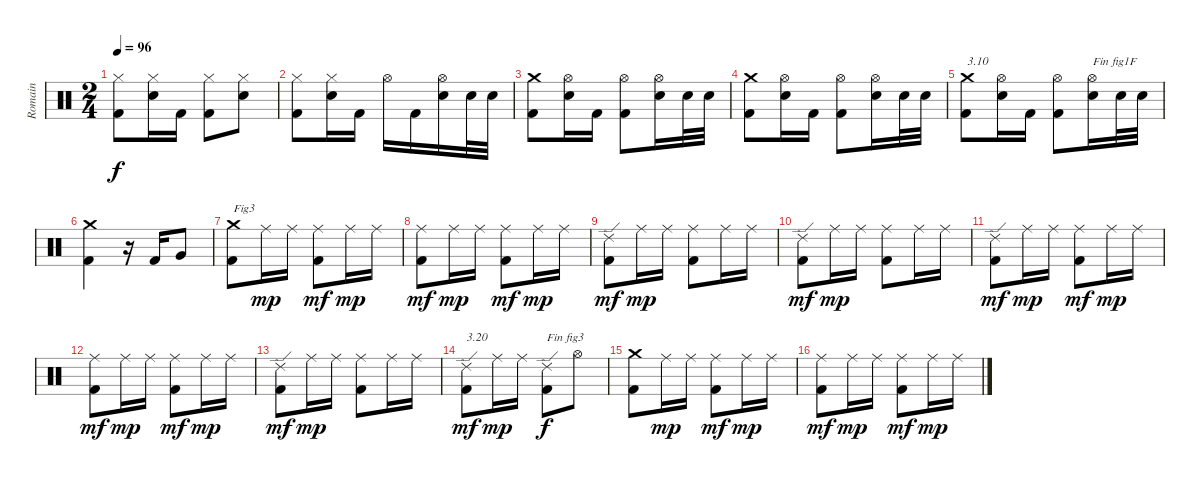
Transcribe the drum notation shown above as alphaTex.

\track ("Romain" "Romain") {instrument percussion}
\staff {score}
\articulation defaults
\ts (2 4)
\tempo 96
\clef neutral
\ks c
("Kick (hit) 2" "Hi-Hat (closed)").8{dy f} ("Electric Snare (hit)" "Hi-Hat (closed)").16 "Kick (hit) 2".16 ("Kick (hit) 2" "Hi-Hat (closed)").8 ("Electric Snare (hit)" "Hi-Hat (closed)").8 |
("Kick (hit) 2" "Hi-Hat (closed)").8 ("Electric Snare (hit)" "Hi-Hat (closed)").16 "Kick (hit) 2".16 "Hi-Hat (open)".16 "Kick (hit) 2".16 ("Electric Snare (hit)" "Hi-Hat (open)").16 "Electric Snare (hit)".32 "Electric Snare (hit)".32 |
("Kick (hit) 2" "Crash medium (hit)").8 ("Electric Snare (hit)" "Hi-Hat (open)").16 "Kick (hit) 2".16 ("Kick (hit) 2" "Hi-Hat (open)").8 ("Electric Snare (hit)" "Hi-Hat (open)").16 "Electric Snare (hit)".32 "Electric Snare (hit)".32 |
("Kick (hit) 2" "Crash medium (hit)").8 ("Electric Snare (hit)" "Hi-Hat (open)").16 "Kick (hit) 2".16 ("Kick (hit) 2" "Hi-Hat (open)").8 ("Electric Snare (hit)" "Hi-Hat (open)").16 "Electric Snare (hit)".32 "Electric Snare (hit)".32 |
("Kick (hit) 2" "Crash medium (hit)").8{txt "3.10"} ("Electric Snare (hit)" "Hi-Hat (open)").16 "Kick (hit) 2".16 ("Kick (hit) 2" "Hi-Hat (open)").8 ("Electric Snare (hit)" "Hi-Hat (open)").16{txt "Fin fig1F"} "Electric Snare (hit)".32 "Electric Snare (hit)".32 |
("Kick (hit) 2" "Crash medium (hit)").4 r.16 "Kick (hit) 2".16 "Very Low Tom (hit)".8 |
("Kick (hit) 2" "Crash medium (hit)").8{txt "Fig3"} "Ride (middle)".16{dy mp} "Ride (middle)".16 ("Kick (hit) 2" "Ride (middle)").8{dy mf} "Ride (middle)".16{dy mp} "Ride (middle)".16 |
("Kick (hit) 2" "Ride (middle)").8{dy mf} "Ride (middle)".16{dy mp} "Ride (middle)".16 ("Kick (hit) 2" "Ride (middle)").8{dy mf} "Ride (middle)".16{dy mp} "Ride (middle)".16 |
("Kick (hit) 2" "Ride (edge) 2").8{dy mf} "Ride (middle)".16{dy mp} "Ride (middle)".16 ("Kick (hit) 2" "Ride (middle)").8 "Ride (middle)".16 "Ride (middle)".16 |
("Kick (hit) 2" "Ride (edge) 2").8{dy mf} "Ride (middle)".16{dy mp} "Ride (middle)".16 ("Kick (hit) 2" "Ride (middle)").8 "Ride (middle)".16 "Ride (middle)".16 |
("Kick (hit) 2" "Ride (edge) 2").8{dy mf} "Ride (middle)".16{dy mp} "Ride (middle)".16 ("Kick (hit) 2" "Ride (middle)").8{dy mf} "Ride (middle)".16{dy mp} "Ride (middle)".16 |
("Kick (hit) 2" "Ride (middle)").8{dy mf} "Ride (middle)".16{dy mp} "Ride (middle)".16 ("Kick (hit) 2" "Ride (middle)").8{dy mf} "Ride (middle)".16{dy mp} "Ride (middle)".16 |
("Kick (hit) 2" "Ride (edge) 2").8{dy mf} "Ride (middle)".16{dy mp} "Ride (middle)".16 ("Kick (hit) 2" "Ride (middle)").8 "Ride (middle)".16 "Ride (middle)".16 |
("Kick (hit) 2" "Ride (edge) 2").8{txt "3.20" dy mf} "Ride (middle)".16{dy mp} "Ride (middle)".16 ("Kick (hit) 2" "Ride (edge) 2").8{txt "Fin fig3" dy f} "Hi-Hat (open)".8 |
("Kick (hit) 2" "Crash medium (hit)").8 "Ride (middle)".16{dy mp} "Ride (middle)".16 ("Kick (hit) 2" "Ride (middle)").8{dy mf} "Ride (middle)".16{dy mp} "Ride (middle)".16 |
("Kick (hit) 2" "Ride (middle)").8{dy mf} "Ride (middle)".16{dy mp} "Ride (middle)".16 ("Kick (hit) 2" "Ride (middle)").8{dy mf} "Ride (middle)".16{dy mp} "Ride (middle)".16
